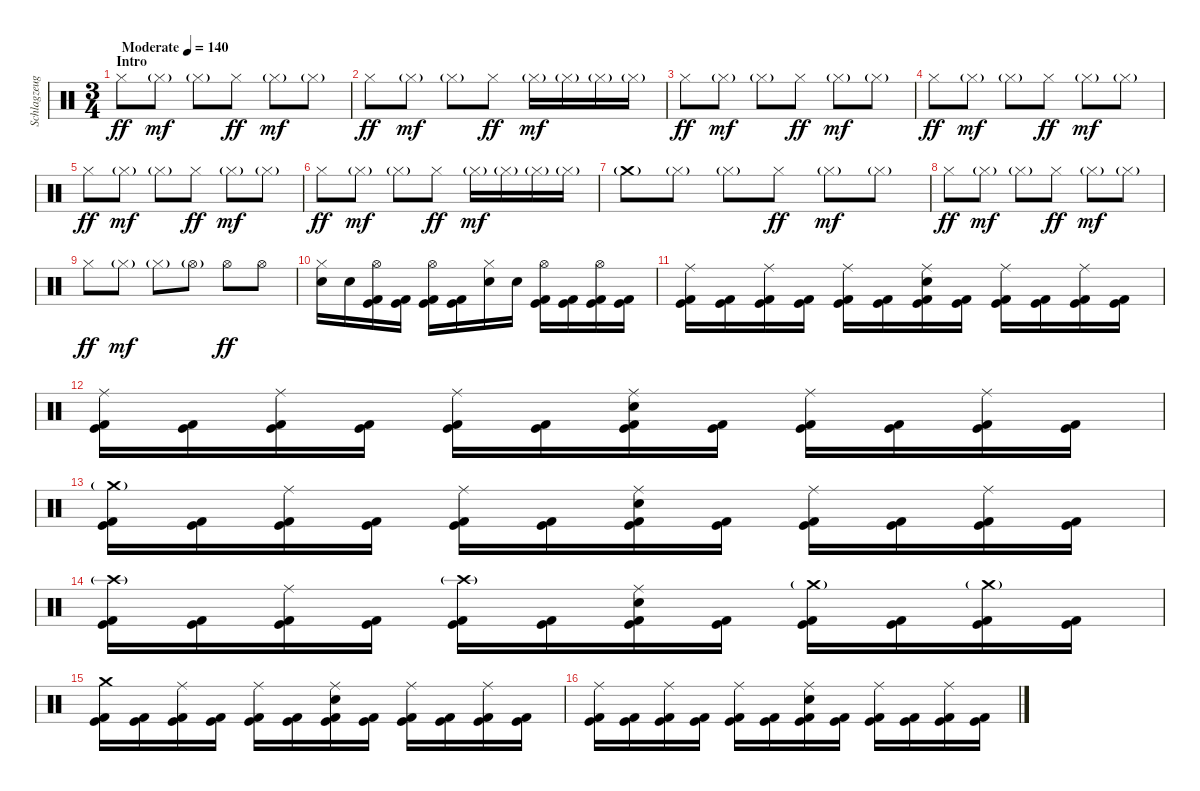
\track ("Schlagzeug" "Schlagzeug") {instrument percussion}
\staff {score}
\articulation defaults
\ts (3 4)
\section ("" "Intro")
\tempo (140 "Moderate")
\clef neutral
\ks c "Hi-Hat (closed)".8{dy ff} "Hi-Hat (closed)"{g}.8{dy mf} "Hi-Hat (closed)"{g}.8 "Hi-Hat (closed)".8{dy ff} "Hi-Hat (closed)"{g}.8{dy mf} "Hi-Hat (closed)"{g}.8
|
"Hi-Hat (closed)".8{dy ff} "Hi-Hat (closed)"{g}.8{dy mf} "Hi-Hat (closed)"{g}.8 "Hi-Hat (closed)".8{dy ff} "Hi-Hat (closed)"{g}.16{dy mf} "Hi-Hat (closed)"{g}.16 "Hi-Hat (closed)"{g}.16 "Hi-Hat (closed)"{g}.16 |
"Hi-Hat (closed)".8{dy ff} "Hi-Hat (closed)"{g}.8{dy mf} "Hi-Hat (closed)"{g}.8 "Hi-Hat (closed)".8{dy ff} "Hi-Hat (closed)"{g}.8{dy mf} "Hi-Hat (closed)"{g}.8 |
"Hi-Hat (closed)".8{dy ff} "Hi-Hat (closed)"{g}.8{dy mf} "Hi-Hat (closed)"{g}.8 "Hi-Hat (closed)".8{dy ff} "Hi-Hat (closed)"{g}.8{dy mf} "Hi-Hat (closed)"{g}.8 |
"Hi-Hat (closed)".8{dy ff} "Hi-Hat (closed)"{g}.8{dy mf} "Hi-Hat (closed)"{g}.8 "Hi-Hat (closed)".8{dy ff} "Hi-Hat (closed)"{g}.8{dy mf} "Hi-Hat (closed)"{g}.8 |
"Hi-Hat (closed)".8{dy ff} "Hi-Hat (closed)"{g}.8{dy mf} "Hi-Hat (closed)"{g}.8 "Hi-Hat (closed)".8{dy ff} "Hi-Hat (closed)"{g}.16{dy mf} "Hi-Hat (closed)"{g}.16 "Hi-Hat (closed)"{g}.16 "Hi-Hat (closed)"{g}.16 |
"Crash medium (hit)"{g}.8 "Hi-Hat (closed)"{g}.8 "Hi-Hat (closed)"{g}.8 "Hi-Hat (closed)".8{dy ff} "Hi-Hat (closed)"{g}.8{dy mf} "Hi-Hat (closed)"{g}.8 |
"Hi-Hat (closed)".8{dy ff} "Hi-Hat (closed)"{g}.8{dy mf} "Hi-Hat (closed)"{g}.8 "Hi-Hat (closed)".8{dy ff} "Hi-Hat (closed)"{g}.8{dy mf} "Hi-Hat (closed)"{g}.8 |
"Hi-Hat (closed)".8{dy ff} "Hi-Hat (closed)"{g}.8{dy mf} "Hi-Hat (closed)"{g}.8 "Hi-Hat (open)"{g}.8 "Hi-Hat (open)".8{dy ff} "Hi-Hat (open)".8 |
("Hi-Hat (closed)" "Electric Snare (hit)").16 "Electric Snare (hit)".16 ("Hi-Hat (open)" "Kick (hit)" "Kick (hit) 2").16 ("Kick (hit)" "Kick (hit) 2").16 ("Hi-Hat (open)" "Kick (hit)" "Kick (hit) 2").16 ("Kick (hit)" "Kick (hit) 2").16 ("Hi-Hat (closed)" "Electric Snare (hit)").16 "Electric Snare (hit)".16 ("Hi-Hat (open)" "Kick (hit)" "Kick (hit) 2").16 ("Kick (hit)" "Kick (hit) 2").16 ("Hi-Hat (open)" "Kick (hit)" "Kick (hit) 2").16 ("Kick (hit)" "Kick (hit) 2").16 |
("Ride (middle)" "Kick (hit)" "Kick (hit) 2").16 ("Kick (hit)" "Kick (hit) 2").16 ("Ride (middle)" "Kick (hit)" "Kick (hit) 2").16 ("Kick (hit)" "Kick (hit) 2").16 ("Ride (middle)" "Kick (hit)" "Kick (hit) 2").16 ("Kick (hit)" "Kick (hit) 2").16 ("Ride (middle)" "Kick (hit)" "Kick (hit) 2" "Electric Snare (hit)").16 ("Kick (hit)" "Kick (hit) 2").16 ("Ride (middle)" "Kick (hit)" "Kick (hit) 2").16 ("Kick (hit)" "Kick (hit) 2").16 ("Ride (middle)" "Kick (hit)" "Kick (hit) 2").16 ("Kick (hit)" "Kick (hit) 2").16 |
("Ride (middle)" "Kick (hit)" "Kick (hit) 2").16 ("Kick (hit)" "Kick (hit) 2").16 ("Ride (middle)" "Kick (hit)" "Kick (hit) 2").16 ("Kick (hit)" "Kick (hit) 2").16 ("Ride (middle)" "Kick (hit)" "Kick (hit) 2").16 ("Kick (hit)" "Kick (hit) 2").16 ("Ride (middle)" "Kick (hit)" "Kick (hit) 2" "Electric Snare (hit)").16 ("Kick (hit)" "Kick (hit) 2").16 ("Ride (middle)" "Kick (hit)" "Kick (hit) 2").16 ("Kick (hit)" "Kick (hit) 2").16 ("Ride (middle)" "Kick (hit)" "Kick (hit) 2").16 ("Kick (hit)" "Kick (hit) 2").16 |
("Crash medium (hit)"{g} "Kick (hit)" "Kick (hit) 2").16 ("Kick (hit)" "Kick (hit) 2").16 ("Ride (middle)" "Kick (hit)" "Kick (hit) 2").16 ("Kick (hit)" "Kick (hit) 2").16 ("Ride (middle)" "Kick (hit)" "Kick (hit) 2").16 ("Kick (hit)" "Kick (hit) 2").16 ("Ride (middle)" "Kick (hit)" "Kick (hit) 2" "Electric Snare (hit)").16 ("Kick (hit)" "Kick (hit) 2").16 ("Ride (middle)" "Kick (hit)" "Kick (hit) 2").16 ("Kick (hit)" "Kick (hit) 2").16 ("Ride (middle)" "Kick (hit)" "Kick (hit) 2").16 ("Kick (hit)" "Kick (hit) 2").16 |
("Crash high (hit)"{g} "Kick (hit)" "Kick (hit) 2").16 ("Kick (hit)" "Kick (hit) 2").16 ("Ride (middle)" "Kick (hit)" "Kick (hit) 2").16 ("Kick (hit)" "Kick (hit) 2").16 ("Crash high (hit)"{g} "Kick (hit)" "Kick (hit) 2").16 ("Kick (hit)" "Kick (hit) 2").16 ("Ride (middle)" "Kick (hit)" "Kick (hit) 2" "Electric Snare (hit)").16 ("Kick (hit)" "Kick (hit) 2").16 ("Crash medium (hit)"{g} "Kick (hit)" "Kick (hit) 2").16 ("Kick (hit)" "Kick (hit) 2").16 ("Crash medium (hit)"{g} "Kick (hit)" "Kick (hit) 2").16 ("Kick (hit)" "Kick (hit) 2").16 |
("Crash medium (hit)" "Kick (hit)" "Kick (hit) 2").16 ("Kick (hit)" "Kick (hit) 2").16 ("Ride (middle)" "Kick (hit)" "Kick (hit) 2").16 ("Kick (hit)" "Kick (hit) 2").16 ("Ride (middle)" "Kick (hit)" "Kick (hit) 2").16 ("Kick (hit)" "Kick (hit) 2").16 ("Ride (middle)" "Kick (hit)" "Kick (hit) 2" "Electric Snare (hit)").16 ("Kick (hit)" "Kick (hit) 2").16 ("Ride (middle)" "Kick (hit)" "Kick (hit) 2").16 ("Kick (hit)" "Kick (hit) 2").16 ("Ride (middle)" "Kick (hit)" "Kick (hit) 2").16 ("Kick (hit)" "Kick (hit) 2").16 |
("Ride (middle)" "Kick (hit)" "Kick (hit) 2").16 ("Kick (hit)" "Kick (hit) 2").16 ("Ride (middle)" "Kick (hit)" "Kick (hit) 2").16 ("Kick (hit)" "Kick (hit) 2").16 ("Ride (middle)" "Kick (hit)" "Kick (hit) 2").16 ("Kick (hit)" "Kick (hit) 2").16 ("Ride (middle)" "Kick (hit)" "Kick (hit) 2" "Electric Snare (hit)").16 ("Kick (hit)" "Kick (hit) 2").16 ("Ride (middle)" "Kick (hit)" "Kick (hit) 2").16 ("Kick (hit)" "Kick (hit) 2").16 ("Ride (middle)" "Kick (hit)" "Kick (hit) 2").16 ("Kick (hit)" "Kick (hit) 2").16
